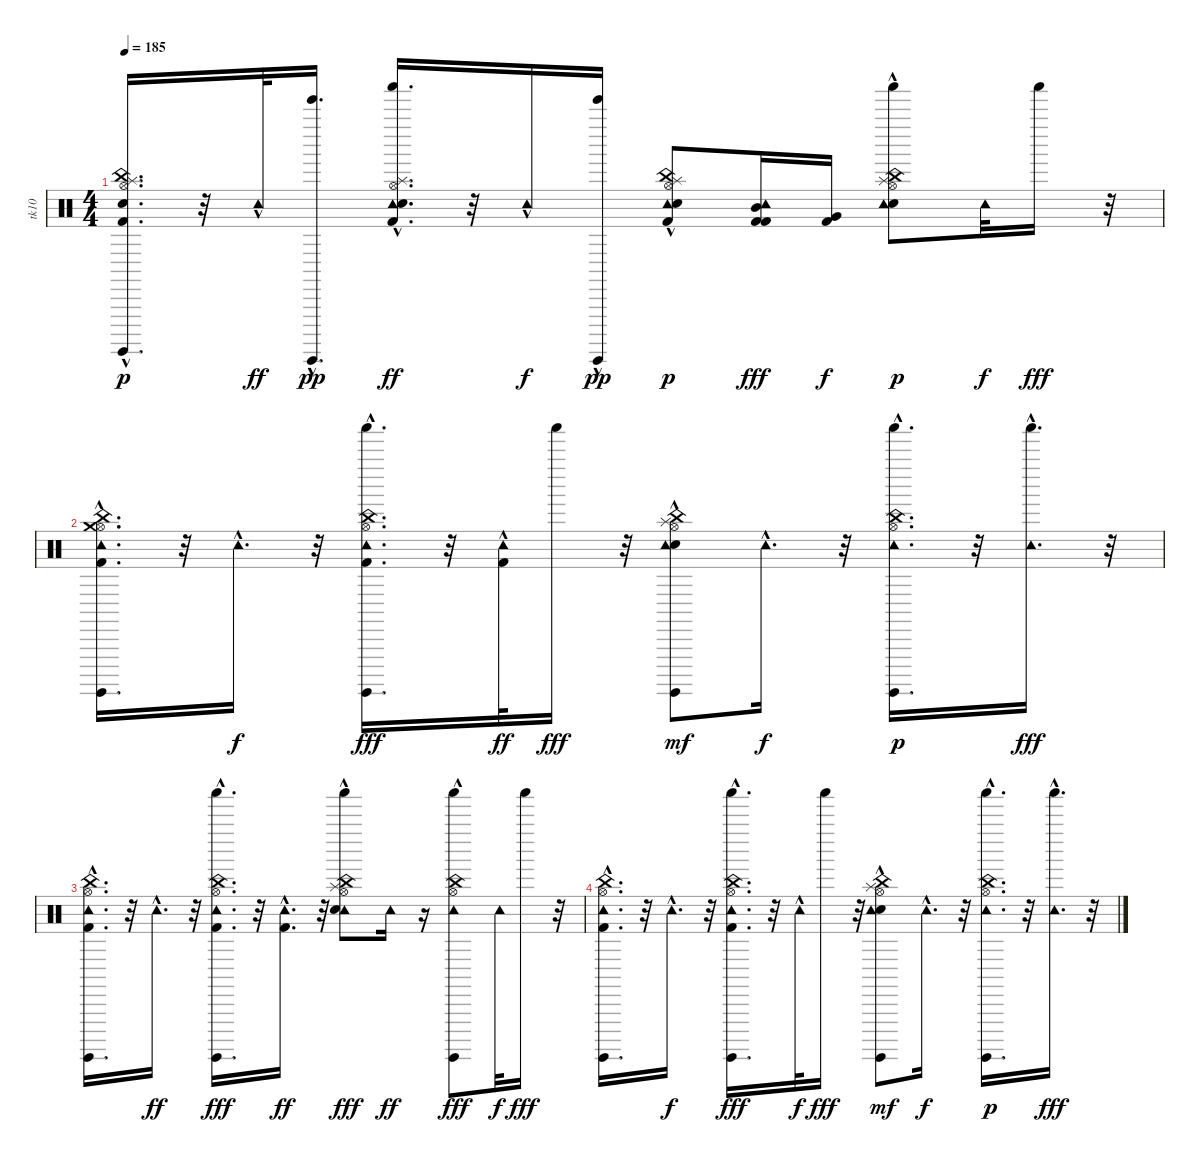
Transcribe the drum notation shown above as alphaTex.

\track ("tk10" "tk10") {instrument percussion}
\staff {score}
\articulation defaults
\ts (4 4)
\tempo 185
\clef neutral
\ks c
("Electric Snare (hit)" "Hi-Hat (open)" "Splash (hit)" "Kick (hit) 2"{hac} "China (hit)" "Surdo (hit)").16{d dy p} r.32 "Tambourine (hit)"{hac}.32{dy ff} ("Guiro (hit)" "Tinkle Bell (hit)"{hac}).16{d dy pp} ("Tambourine (hit)"{hac} "Shaker (hit)" "Electric Snare (hit)" "Hi-Hat (open)" "Splash (hit)" "Kick (hit) 2").16{d dy ff} r.32 "Tambourine (hit)"{hac}.16{dy f} ("Guiro (hit)" "Tinkle Bell (hit)"{hac}).16{dy pp} ("Tambourine (hit)"{hac} "Electric Snare (hit)" "Hi-Hat (open)" "Splash (hit)" "Kick (hit) 2" "China (hit)").8{dy p} ("Tambourine (hit)" "Mid Tom (hit)" "Kick (hit) 2" "Kick (hit) 2").16{dy fff} ("Kick (hit) 2" "Very Low Tom (hit)").16{dy f} ("Electric Snare (hit)"{hac} "Tambourine (hit)" "Shaker (hit)" "Hi-Hat (open)" "Splash (hit)" "China (hit)").8{dy p} "Tambourine (hit)".32{dy f} "Shaker (hit)".16{dy fff} r.32 |
("Kick (hit) 2"{hac} "Hi-Hat (open)" "Crash medium (hit)" "Surdo (hit)" "China (hit)" "Tambourine (hit)"{hac}).16{d} r.32 "Tambourine (hit)"{hac}.16{d dy f} r.32 ("Tambourine (hit)"{hac} "Shaker (hit)" "Kick (hit) 2" "Hi-Hat (open)" "China (hit)" "Surdo (hit)").16{d dy fff} r.32 ("Tambourine (hit)"{hac} "Kick (hit) 2"{hac}).32{dy ff} "Shaker (hit)".16{dy fff} r.32 ("Electric Snare (hit)" "Hi-Hat (open)" "Splash (hit)" "China (hit)" "Tambourine (hit)"{hac} "Surdo (hit)").8{dy mf} "Tambourine (hit)"{hac}.16{d dy f} r.32 ("Shaker (hit)" "Surdo (hit)" "Tambourine (hit)"{hac} "Hi-Hat (open)" "China (hit)").16{d dy p} r.32 ("Tambourine (hit)"{hac} "Shaker (hit)").16{d dy fff} r.32 |
("Kick (hit) 2"{hac} "Hi-Hat (open)" "China (hit)" "Surdo (hit)" "Tambourine (hit)"{hac}).16{d} r.32 "Tambourine (hit)"{hac}.16{d dy ff} r.32 ("Tambourine (hit)"{hac} "Shaker (hit)" "Kick (hit) 2" "Hi-Hat (open)" "China (hit)" "Surdo (hit)").16{d dy fff} r.32 ("Tambourine (hit)"{hac} "Kick (hit) 2"{hac}).16{d dy ff} r.32 ("Tambourine (hit)"{hac} "Electric Snare (hit)" "Hi-Hat (open)" "Splash (hit)" "China (hit)" "Shaker (hit)"{hac}).8{dy fff} "Tambourine (hit)".16{dy ff} r.16 ("Tambourine (hit)" "Shaker (hit)" "Hi-Hat (open)" "China (hit)" "Surdo (hit)"{hac}).8{dy fff} "Tambourine (hit)".32{dy f} "Shaker (hit)".16{dy fff} r.32 |
("Kick (hit) 2"{hac} "Hi-Hat (open)" "Surdo (hit)" "China (hit)" "Tambourine (hit)"{hac}).16{d} r.32 "Tambourine (hit)"{hac}.16{d dy f} r.32 ("Tambourine (hit)"{hac} "Shaker (hit)" "Kick (hit) 2" "Hi-Hat (open)" "China (hit)" "Surdo (hit)").16{d dy fff} r.32 "Tambourine (hit)"{hac}.32{dy f} "Shaker (hit)".16{dy fff} r.32 ("Electric Snare (hit)" "Hi-Hat (open)" "Splash (hit)" "China (hit)" "Tambourine (hit)"{hac} "Surdo (hit)").8{dy mf} "Tambourine (hit)"{hac}.16{d dy f} r.32 ("Shaker (hit)" "Surdo (hit)" "Tambourine (hit)"{hac} "Hi-Hat (open)" "China (hit)").16{d dy p} r.32 ("Tambourine (hit)"{hac} "Shaker (hit)").16{d dy fff} r.32
